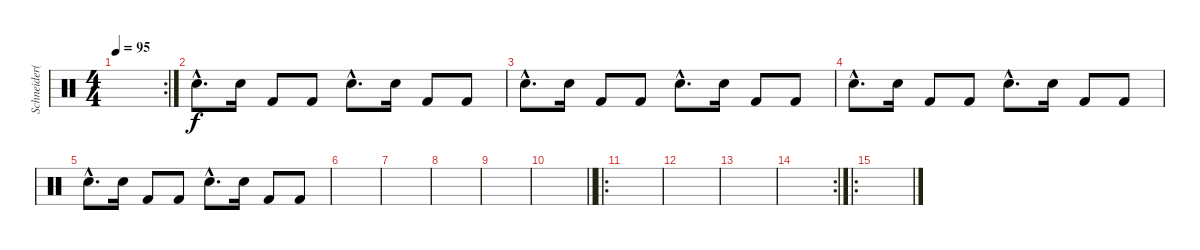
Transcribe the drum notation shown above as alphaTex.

\track ("Schneider(Synth)" "Schneider(") {instrument percussion}
\staff {score}
\articulation defaults
\rc 2
\ts (4 4)
\tempo 95
\clef neutral
\ks c
|
"Snare (hit) 2"{hac}.8{d} "Snare (hit) 2".16 "Kick (hit) 2".8 "Kick (hit) 2".8 "Snare (hit) 2"{hac}.8{d} "Snare (hit) 2".16 "Kick (hit) 2".8 "Kick (hit) 2".8 |
"Snare (hit) 2"{hac}.8{d} "Snare (hit) 2".16 "Kick (hit) 2".8 "Kick (hit) 2".8 "Snare (hit) 2"{hac}.8{d} "Snare (hit) 2".16 "Kick (hit) 2".8 "Kick (hit) 2".8 |
"Snare (hit) 2"{hac}.8{d} "Snare (hit) 2".16 "Kick (hit) 2".8 "Kick (hit) 2".8 "Snare (hit) 2"{hac}.8{d} "Snare (hit) 2".16 "Kick (hit) 2".8 "Kick (hit) 2".8 |
"Snare (hit) 2"{hac}.8{d} "Snare (hit) 2".16 "Kick (hit) 2".8 "Kick (hit) 2".8 "Snare (hit) 2"{hac}.8{d} "Snare (hit) 2".16 "Kick (hit) 2".8 "Kick (hit) 2".8 |
|
|
|
|
\barLineRight lightlight
|
\ro
|
|
|
\rc 2
|
\ro
